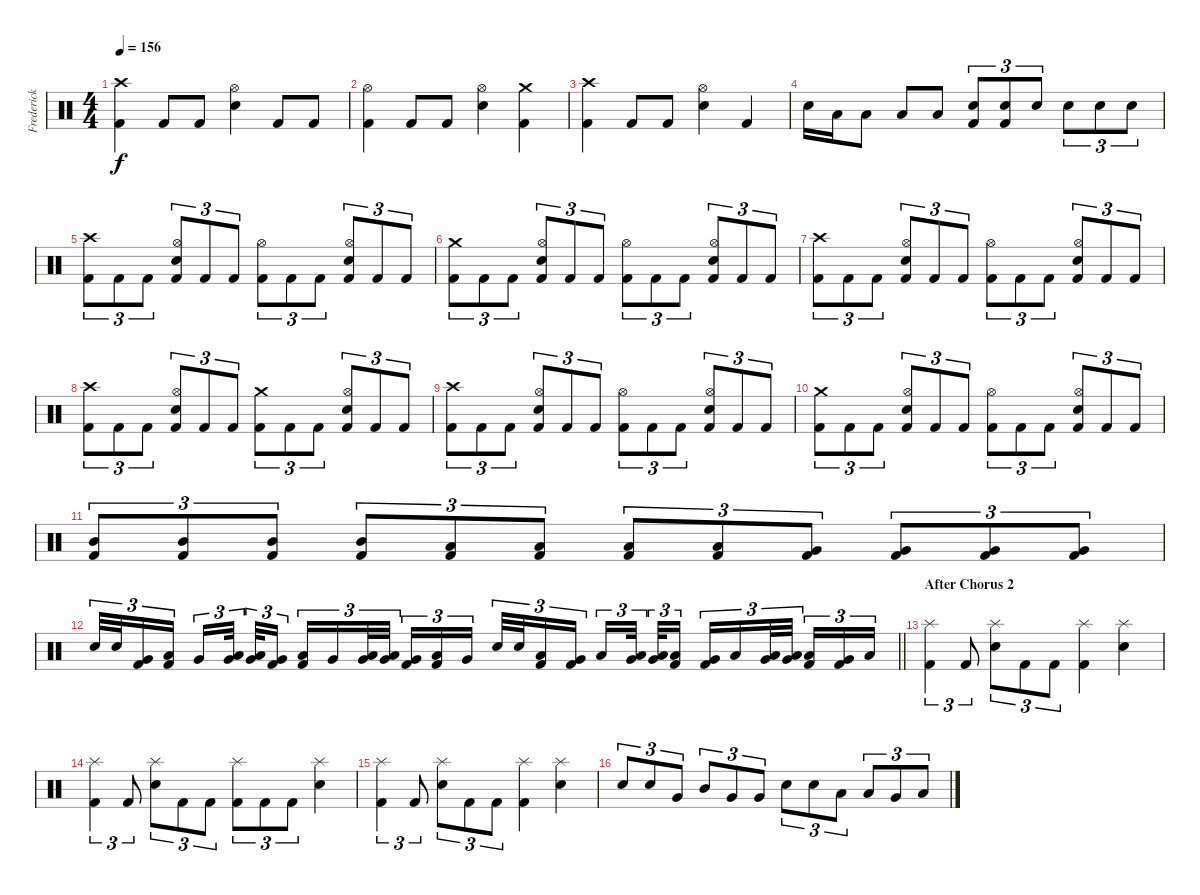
\track ("Frederick Ehmke" "Frederick ") {instrument percussion}
\staff {score}
\articulation defaults
\ts (4 4)
\tempo 156
\clef neutral
\ks c
("Crash high (hit)" "Kick (hit) 2").4{dy f} "Kick (hit) 2".8 "Kick (hit) 2".8 ("Hi-Hat (open)" "Electric Snare (hit)").4 "Kick (hit) 2".8 "Kick (hit) 2".8 |
("Hi-Hat (open)" "Kick (hit) 2").4 "Kick (hit) 2".8 "Kick (hit) 2".8 ("Hi-Hat (open)" "Electric Snare (hit)").4 ("Crash medium (hit)" "Kick (hit) 2").4 |
("Crash high (hit)" "Kick (hit) 2").4 "Kick (hit) 2".8 "Kick (hit) 2".8 ("Hi-Hat (open)" "Electric Snare (hit)").4 "Kick (hit) 2".4 |
"Electric Snare (hit)".16 "Low Floor Tom (hit)".16 "Low Tom (hit)".8 "Low Floor Tom (hit)".8 "Low Floor Tom (hit)".8 ("Kick (hit) 2" "Electric Snare (hit)").8{tu (3 2) volume 8} ("Kick (hit) 2" "Electric Snare (hit)").8{tu (3 2) volume 9} "Electric Snare (hit)".8{tu (3 2) volume 10} "Electric Snare (hit)".8{tu (3 2) volume 13} "Electric Snare (hit)".8{tu (3 2)} "Electric Snare (hit)".8{tu (3 2)} |
("Crash high (hit)" "Kick (hit) 2").8{tu (3 2)} "Kick (hit) 2".8{tu (3 2)} "Kick (hit) 2".8{tu (3 2)} ("Hi-Hat (open)" "Kick (hit) 2" "Electric Snare (hit)").8{tu (3 2)} "Kick (hit) 2".8{tu (3 2)} "Kick (hit) 2".8{tu (3 2)} ("Hi-Hat (open)" "Kick (hit) 2").8{tu (3 2)} "Kick (hit) 2".8{tu (3 2)} "Kick (hit) 2".8{tu (3 2)} ("Hi-Hat (open)" "Kick (hit) 2" "Electric Snare (hit)").8{tu (3 2)} "Kick (hit) 2".8{tu (3 2)} "Kick (hit) 2".8{tu (3 2)} |
("Crash medium (hit)" "Kick (hit) 2").8{tu (3 2)} "Kick (hit) 2".8{tu (3 2)} "Kick (hit) 2".8{tu (3 2)} ("Hi-Hat (open)" "Kick (hit) 2" "Electric Snare (hit)").8{tu (3 2)} "Kick (hit) 2".8{tu (3 2)} "Kick (hit) 2".8{tu (3 2)} ("Hi-Hat (open)" "Kick (hit) 2").8{tu (3 2)} "Kick (hit) 2".8{tu (3 2)} "Kick (hit) 2".8{tu (3 2)} ("Hi-Hat (open)" "Kick (hit) 2" "Electric Snare (hit)").8{tu (3 2)} "Kick (hit) 2".8{tu (3 2)} "Kick (hit) 2".8{tu (3 2)} |
("Crash high (hit)" "Kick (hit) 2").8{tu (3 2)} "Kick (hit) 2".8{tu (3 2)} "Kick (hit) 2".8{tu (3 2)} ("Hi-Hat (open)" "Kick (hit) 2" "Electric Snare (hit)").8{tu (3 2)} "Kick (hit) 2".8{tu (3 2)} "Kick (hit) 2".8{tu (3 2)} ("Hi-Hat (open)" "Kick (hit) 2").8{tu (3 2)} "Kick (hit) 2".8{tu (3 2)} "Kick (hit) 2".8{tu (3 2)} ("Hi-Hat (open)" "Kick (hit) 2" "Electric Snare (hit)").8{tu (3 2)} "Kick (hit) 2".8{tu (3 2)} "Kick (hit) 2".8{tu (3 2)} |
("Crash high (hit)" "Kick (hit) 2").8{tu (3 2)} "Kick (hit) 2".8{tu (3 2)} "Kick (hit) 2".8{tu (3 2)} ("Hi-Hat (open)" "Kick (hit) 2" "Electric Snare (hit)").8{tu (3 2)} "Kick (hit) 2".8{tu (3 2)} "Kick (hit) 2".8{tu (3 2)} ("Crash medium (hit)" "Kick (hit) 2").8{tu (3 2)} "Kick (hit) 2".8{tu (3 2)} "Kick (hit) 2".8{tu (3 2)} ("Hi-Hat (open)" "Kick (hit) 2" "Electric Snare (hit)").8{tu (3 2)} "Kick (hit) 2".8{tu (3 2)} "Kick (hit) 2".8{tu (3 2)} |
("Crash high (hit)" "Kick (hit) 2").8{tu (3 2)} "Kick (hit) 2".8{tu (3 2)} "Kick (hit) 2".8{tu (3 2)} ("Hi-Hat (open)" "Kick (hit) 2" "Electric Snare (hit)").8{tu (3 2)} "Kick (hit) 2".8{tu (3 2)} "Kick (hit) 2".8{tu (3 2)} ("Hi-Hat (open)" "Kick (hit) 2").8{tu (3 2)} "Kick (hit) 2".8{tu (3 2)} "Kick (hit) 2".8{tu (3 2)} ("Hi-Hat (open)" "Kick (hit) 2" "Electric Snare (hit)").8{tu (3 2)} "Kick (hit) 2".8{tu (3 2)} "Kick (hit) 2".8{tu (3 2)} |
("Crash medium (hit)" "Kick (hit) 2").8{tu (3 2)} "Kick (hit) 2".8{tu (3 2)} "Kick (hit) 2".8{tu (3 2)} ("Hi-Hat (open)" "Kick (hit) 2" "Electric Snare (hit)").8{tu (3 2)} "Kick (hit) 2".8{tu (3 2)} "Kick (hit) 2".8{tu (3 2)} ("Hi-Hat (open)" "Kick (hit) 2").8{tu (3 2)} "Kick (hit) 2".8{tu (3 2)} "Kick (hit) 2".8{tu (3 2)} ("Hi-Hat (open)" "Kick (hit) 2" "Electric Snare (hit)").8{tu (3 2)} "Kick (hit) 2".8{tu (3 2)} "Kick (hit) 2".8{tu (3 2)} |
("Kick (hit) 2" "Mid Tom (hit)").8{tu (3 2)} ("Kick (hit) 2" "Mid Tom (hit)").8{tu (3 2)} ("Kick (hit) 2" "Mid Tom (hit)").8{tu (3 2)} ("Kick (hit) 2" "Mid Tom (hit)").8{tu (3 2)} ("Kick (hit) 2" "Low Tom (hit)").8{tu (3 2)} ("Kick (hit) 2" "Low Tom (hit)").8{tu (3 2)} ("Kick (hit) 2" "Low Tom (hit)").8{tu (3 2)} ("Kick (hit) 2" "Low Tom (hit)").8{tu (3 2)} ("Kick (hit) 2" "Very Low Tom (hit)").8{tu (3 2)} ("Kick (hit) 2" "Very Low Tom (hit)").8{tu (3 2)} ("Kick (hit) 2" "Very Low Tom (hit)").8{tu (3 2)} ("Kick (hit) 2" "Very Low Tom (hit)").8{tu (3 2)} |
\barLineRight lightlight "Electric Snare (hit)".32{tu (3 2)} "Electric Snare (hit)".32{tu (3 2)}
("Kick (hit) 2" "Very Low Tom (hit)").16{tu (3 2)} ("Kick (hit) 2" "Low Tom (hit)").16{tu (3 2) beam splitsecondary} "Very Low Tom (hit)".16{tu (3 2)} ("Low Tom (hit)" "Very Low Tom (hit)").32{tu (3 2) beam splitsecondary} ("Low Tom (hit)" "Very Low Tom (hit)").32{tu (3 2)} ("Kick (hit) 2" "Very Low Tom (hit)").16{tu (3 2)} ("Kick (hit) 2" "Low Tom (hit)").16{tu (3 2)} "Very Low Tom (hit)".16{tu (3 2)} ("Low Tom (hit)" "Very Low Tom (hit)").32{tu (3 2)} ("Low Tom (hit)" "Very Low Tom (hit)").32{tu (3 2) beam splitsecondary} ("Kick (hit) 2" "Very Low Tom (hit)").16{tu (3 2)} ("Kick (hit) 2" "Low Tom (hit)").16{tu (3 2)} "Very Low Tom (hit)".16{tu (3 2)} "Electric Snare (hit)".32{tu (3 2)} "Electric Snare (hit)".32{tu (3 2)} ("Kick (hit) 2" "Low Floor Tom (hit)").16{tu (3 2)} ("Kick (hit) 2" "Very Low Tom (hit)").16{tu (3 2) beam splitsecondary} "Low Floor Tom (hit)".16{tu (3 2)} ("Very Low Tom (hit)" "Low Floor Tom (hit)").32{tu (3 2) beam splitsecondary} ("Very Low Tom (hit)" "Low Floor Tom (hit)").32{tu (3 2)} ("Kick (hit) 2" "Low Floor Tom (hit)").16{tu (3 2)} ("Kick (hit) 2" "Very Low Tom (hit)").16{tu (3 2)} "Low Floor Tom (hit)".16{tu (3 2)} ("Very Low Tom (hit)" "Low Floor Tom (hit)").32{tu (3 2)} ("Very Low Tom (hit)" "Low Floor Tom (hit)").32{tu (3 2) beam splitsecondary} ("Kick (hit) 2" "Low Floor Tom (hit)").16{tu (3 2)} ("Kick (hit) 2" "Very Low Tom (hit)").16{tu (3 2)} "Low Floor Tom (hit)".16{tu (3 2)} |
\section ("" "After Chorus 2")
("Splash (hit)" "Kick (hit) 2").4{tu (3 2)} "Kick (hit) 2".8{tu (3 2)} ("Splash (hit)" "Electric Snare (hit)").8{tu (3 2)} "Kick (hit) 2".8{tu (3 2)} "Kick (hit) 2".8{tu (3 2)} ("Splash (hit)" "Kick (hit) 2").4 ("Splash (hit)" "Electric Snare (hit)").4 |
("Splash (hit)" "Kick (hit) 2").4{tu (3 2)} "Kick (hit) 2".8{tu (3 2)} ("Splash (hit)" "Electric Snare (hit)").8{tu (3 2)} "Kick (hit) 2".8{tu (3 2)} "Kick (hit) 2".8{tu (3 2)} ("Splash (hit)" "Kick (hit) 2").8{tu (3 2)} "Kick (hit) 2".8{tu (3 2)} "Kick (hit) 2".8{tu (3 2)} ("Splash (hit)" "Electric Snare (hit)").4 |
("Splash (hit)" "Kick (hit) 2").4{tu (3 2)} "Kick (hit) 2".8{tu (3 2)} ("Splash (hit)" "Electric Snare (hit)").8{tu (3 2)} "Kick (hit) 2".8{tu (3 2)} "Kick (hit) 2".8{tu (3 2)} ("Splash (hit)" "Kick (hit) 2").4 ("Splash (hit)" "Electric Snare (hit)").4 |
"Electric Snare (hit)".8{tu (3 2)} "Electric Snare (hit)".8{tu (3 2)} "Very Low Tom (hit)".8{tu (3 2)} "Mid Tom (hit)".8{tu (3 2)} "Very Low Tom (hit)".8{tu (3 2)} "Very Low Tom (hit)".8{tu (3 2)} "Electric Snare (hit)".8{tu (3 2)} "Electric Snare (hit)".8{tu (3 2)} "Low Floor Tom (hit)".8{tu (3 2)} "Low Tom (hit)".8{tu (3 2)} "Very Low Tom (hit)".8{tu (3 2)} "Low Floor Tom (hit)".8{tu (3 2)}
